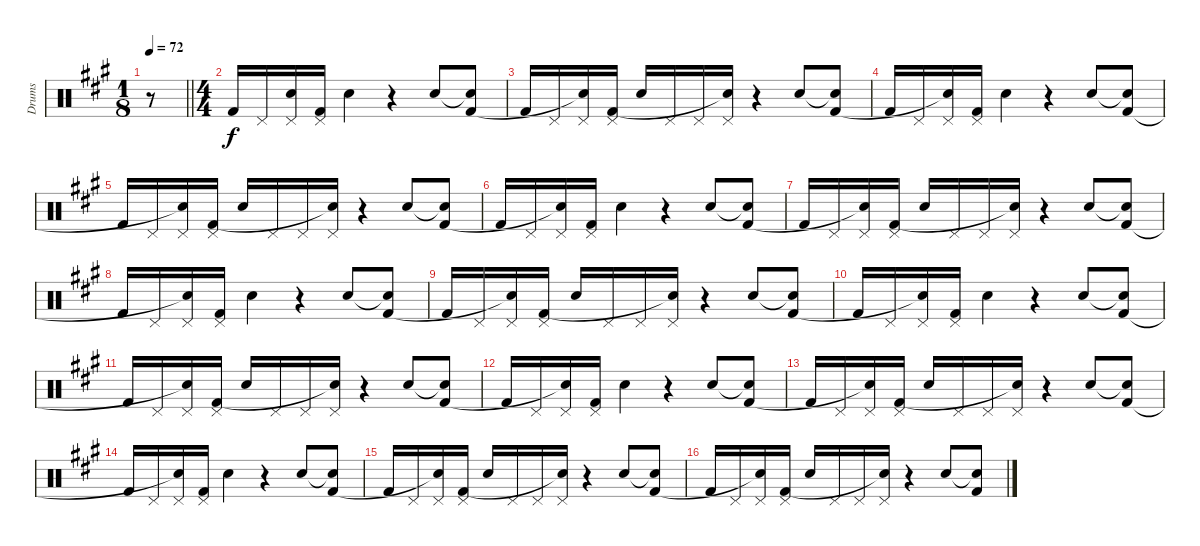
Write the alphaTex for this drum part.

\track ("Drums" "Drums") {instrument percussion}
\staff {score}
\articulation defaults
\ts (1 8)
\tempo 72
\clef neutral
\barLineRight lightlight
\ks a
r.8{dy f} |
\ts (4 4)
"Kick (hit) 2".16 "Pedal Hi-Hat (hit)".16 ("Pedal Hi-Hat (hit)" "Snare (hit)").16 ("Pedal Hi-Hat (hit)" "Kick (hit) 2").16 "Snare (hit) 2".4 r.4 "Snare (hit) 2".8 ("Snare (hit)"{t} "Kick (hit) 2").8 |
"Kick (hit) 2".16 "Pedal Hi-Hat (hit)".16 ("Pedal Hi-Hat (hit)" "Snare (hit)"{t}).16 ("Pedal Hi-Hat (hit)" "Kick (hit) 2").16 "Snare (hit) 2".16 "Pedal Hi-Hat (hit)".16 "Pedal Hi-Hat (hit)".16 ("Pedal Hi-Hat (hit)" "Snare (hit)"{t}).16 r.4 "Snare (hit) 2".8 ("Snare (hit)"{t} "Kick (hit) 2").8 |
"Kick (hit) 2".16 "Pedal Hi-Hat (hit)".16 ("Pedal Hi-Hat (hit)" "Snare (hit)"{t}).16 ("Pedal Hi-Hat (hit)" "Kick (hit) 2").16 "Snare (hit) 2".4 r.4 "Snare (hit) 2".8 ("Snare (hit)"{t} "Kick (hit) 2").8 |
"Kick (hit) 2".16 "Pedal Hi-Hat (hit)".16 ("Pedal Hi-Hat (hit)" "Snare (hit)"{t}).16 ("Pedal Hi-Hat (hit)" "Kick (hit) 2").16 "Snare (hit) 2".16 "Pedal Hi-Hat (hit)".16 "Pedal Hi-Hat (hit)".16 ("Pedal Hi-Hat (hit)" "Snare (hit)"{t}).16 r.4 "Snare (hit) 2".8 ("Snare (hit)"{t} "Kick (hit) 2").8 |
"Kick (hit) 2".16 "Pedal Hi-Hat (hit)".16 ("Pedal Hi-Hat (hit)" "Snare (hit)"{t}).16 ("Pedal Hi-Hat (hit)" "Kick (hit) 2").16 "Snare (hit) 2".4 r.4 "Snare (hit) 2".8 ("Snare (hit)"{t} "Kick (hit) 2").8 |
"Kick (hit) 2".16 "Pedal Hi-Hat (hit)".16 ("Pedal Hi-Hat (hit)" "Snare (hit)"{t}).16 ("Pedal Hi-Hat (hit)" "Kick (hit) 2").16 "Snare (hit) 2".16 "Pedal Hi-Hat (hit)".16 "Pedal Hi-Hat (hit)".16 ("Pedal Hi-Hat (hit)" "Snare (hit)"{t}).16 r.4 "Snare (hit) 2".8 ("Snare (hit)"{t} "Kick (hit) 2").8 |
"Kick (hit) 2".16 "Pedal Hi-Hat (hit)".16 ("Pedal Hi-Hat (hit)" "Snare (hit)"{t}).16 ("Pedal Hi-Hat (hit)" "Kick (hit) 2").16 "Snare (hit) 2".4 r.4 "Snare (hit) 2".8 ("Snare (hit)"{t} "Kick (hit) 2").8 |
"Kick (hit) 2".16 "Pedal Hi-Hat (hit)".16 ("Pedal Hi-Hat (hit)" "Snare (hit)"{t}).16 ("Pedal Hi-Hat (hit)" "Kick (hit) 2").16 "Snare (hit) 2".16 "Pedal Hi-Hat (hit)".16 "Pedal Hi-Hat (hit)".16 ("Pedal Hi-Hat (hit)" "Snare (hit)"{t}).16 r.4 "Snare (hit) 2".8 ("Snare (hit)"{t} "Kick (hit) 2").8 |
"Kick (hit) 2".16 "Pedal Hi-Hat (hit)".16 ("Pedal Hi-Hat (hit)" "Snare (hit)"{t}).16 ("Pedal Hi-Hat (hit)" "Kick (hit) 2").16 "Snare (hit) 2".4 r.4 "Snare (hit) 2".8 ("Snare (hit)"{t} "Kick (hit) 2").8 |
"Kick (hit) 2".16 "Pedal Hi-Hat (hit)".16 ("Pedal Hi-Hat (hit)" "Snare (hit)"{t}).16 ("Pedal Hi-Hat (hit)" "Kick (hit) 2").16 "Snare (hit) 2".16 "Pedal Hi-Hat (hit)".16 "Pedal Hi-Hat (hit)".16 ("Pedal Hi-Hat (hit)" "Snare (hit)"{t}).16 r.4 "Snare (hit) 2".8 ("Snare (hit)"{t} "Kick (hit) 2").8 |
"Kick (hit) 2".16 "Pedal Hi-Hat (hit)".16 ("Pedal Hi-Hat (hit)" "Snare (hit)"{t}).16 ("Pedal Hi-Hat (hit)" "Kick (hit) 2").16 "Snare (hit) 2".4 r.4 "Snare (hit) 2".8 ("Snare (hit)"{t} "Kick (hit) 2").8 |
"Kick (hit) 2".16 "Pedal Hi-Hat (hit)".16 ("Pedal Hi-Hat (hit)" "Snare (hit)"{t}).16 ("Pedal Hi-Hat (hit)" "Kick (hit) 2").16 "Snare (hit) 2".16 "Pedal Hi-Hat (hit)".16 "Pedal Hi-Hat (hit)".16 ("Pedal Hi-Hat (hit)" "Snare (hit)"{t}).16 r.4 "Snare (hit) 2".8 ("Snare (hit)"{t} "Kick (hit) 2").8 |
"Kick (hit) 2".16 "Pedal Hi-Hat (hit)".16 ("Pedal Hi-Hat (hit)" "Snare (hit)"{t}).16 ("Pedal Hi-Hat (hit)" "Kick (hit) 2").16 "Snare (hit) 2".4 r.4 "Snare (hit) 2".8 ("Snare (hit)"{t} "Kick (hit) 2").8 |
"Kick (hit) 2".16 "Pedal Hi-Hat (hit)".16 ("Pedal Hi-Hat (hit)" "Snare (hit)"{t}).16 ("Pedal Hi-Hat (hit)" "Kick (hit) 2").16 "Snare (hit) 2".16 "Pedal Hi-Hat (hit)".16 "Pedal Hi-Hat (hit)".16 ("Pedal Hi-Hat (hit)" "Snare (hit)"{t}).16 r.4 "Snare (hit) 2".8 ("Snare (hit)"{t} "Kick (hit) 2").8 |
"Kick (hit) 2".16 "Pedal Hi-Hat (hit)".16 ("Pedal Hi-Hat (hit)" "Snare (hit)"{t}).16 ("Pedal Hi-Hat (hit)" "Kick (hit) 2").16 "Snare (hit) 2".16 "Pedal Hi-Hat (hit)".16 "Pedal Hi-Hat (hit)".16 ("Pedal Hi-Hat (hit)" "Snare (hit)"{t}).16 r.4 "Snare (hit) 2".8 ("Snare (hit)"{t} "Kick (hit) 2").8
